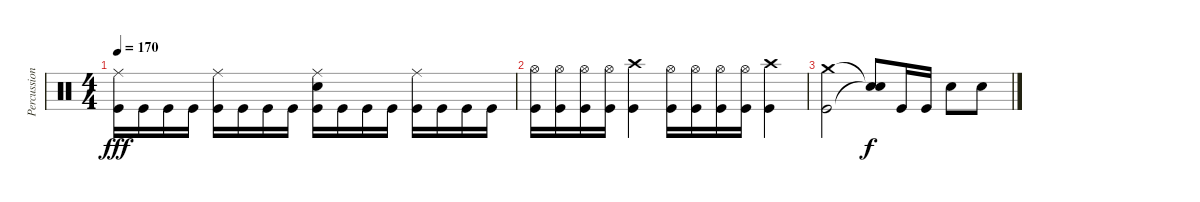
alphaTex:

\track ("Percussion" "Percussion") {instrument percussion}
\staff {score}
\articulation defaults
\ts (4 4)
\tempo 170
\clef neutral
\ks c
("Ride (middle)" "Kick (hit)").16{dy fff} "Kick (hit)".16 "Kick (hit)".16 "Kick (hit)".16 ("Ride (middle)" "Kick (hit)").16 "Kick (hit)".16 "Kick (hit)".16 "Kick (hit)".16 ("Ride (middle)" "Electric Snare (hit)" "Kick (hit)").16 "Kick (hit)".16 "Kick (hit)".16 "Kick (hit)".16 ("Ride (middle)" "Kick (hit)").16 "Kick (hit)".16 "Kick (hit)".16 "Kick (hit)".16 |
("Hi-Hat (open)" "Kick (hit)").16 ("Hi-Hat (open)" "Kick (hit)").16 ("Hi-Hat (open)" "Kick (hit)").16 ("Hi-Hat (open)" "Kick (hit)").16 ("Crash high (hit)" "Kick (hit)").4 ("Hi-Hat (open)" "Kick (hit)").16 ("Hi-Hat (open)" "Kick (hit)").16 ("Hi-Hat (open)" "Kick (hit)").16 ("Hi-Hat (open)" "Kick (hit)").16 ("Crash high (hit)" "Kick (hit)").4 |
("Crash medium (hit)" "Kick (hit)").2 ("Snare (hit)"{t} "Snare (hit)"{t}).8{dy f} "Kick (hit)".16 "Kick (hit)".16 "Electric Snare (hit)".8 "Electric Snare (hit)".8
